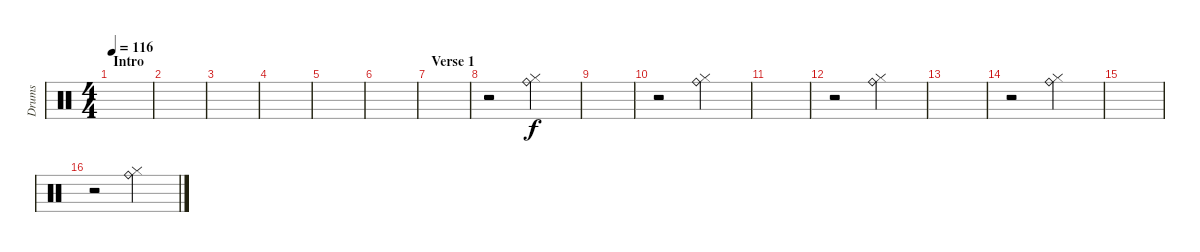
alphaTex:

\track ("Drums" "Drums") {instrument percussion}
\staff {score}
\articulation defaults
\ts (4 4)
\section ("" "Intro")
\tempo 116
\clef neutral
\ks c
|
|
|
|
|
|
\section ("" "Verse 1")
|
r.2 ("Ride (bell)" "Hi-Hat (closed)").2 |
|
r.2 ("Ride (bell)" "Hi-Hat (closed)").2 |
|
r.2 ("Ride (bell)" "Hi-Hat (closed)").2 |
|
r.2 ("Ride (bell)" "Hi-Hat (closed)").2 |
|
r.2 ("Ride (bell)" "Hi-Hat (closed)").2
